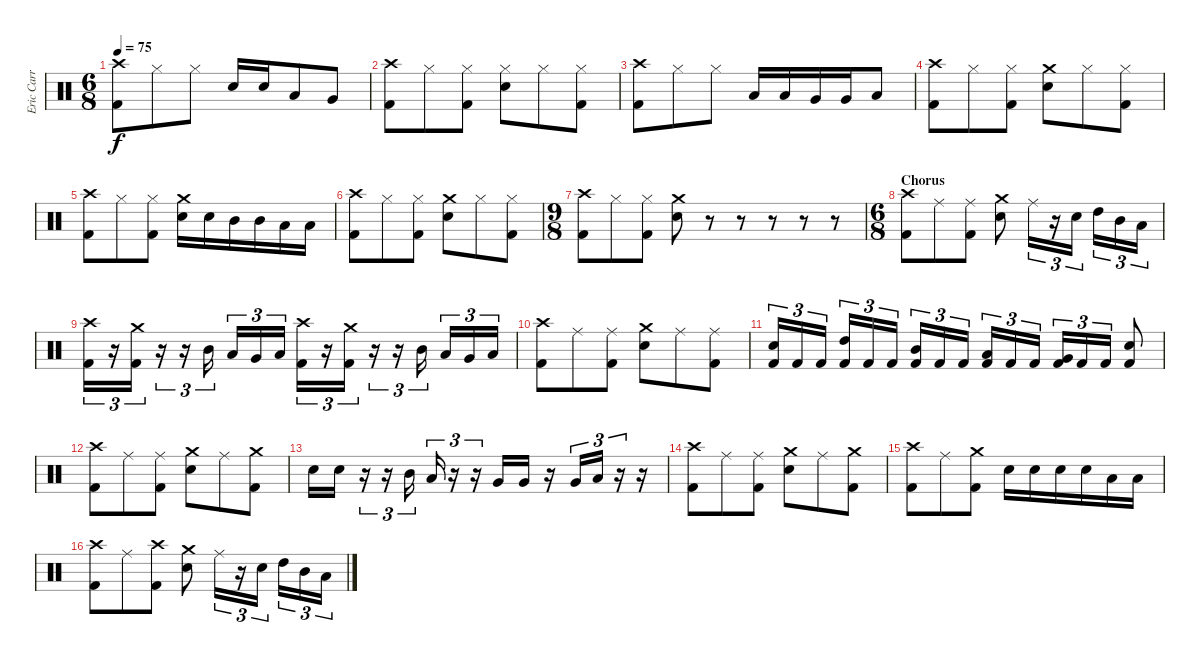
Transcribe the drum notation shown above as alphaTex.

\track ("Eric Carr" "Eric Carr") {instrument percussion}
\staff {score}
\articulation defaults
\ts (6 8)
\tempo 75
\clef neutral
\ks c
("Crash high (hit)" "Kick (hit) 2").8{dy f} "Hi-Hat (closed)".8 "Hi-Hat (closed)".8 "Electric Snare (hit)".16 "Electric Snare (hit)".16 "Low Tom (hit)".8 "Very Low Tom (hit)".8 |
("Crash high (hit)" "Kick (hit) 2").8 "Hi-Hat (closed)".8 ("Hi-Hat (closed)" "Kick (hit) 2").8 ("Hi-Hat (closed)" "Electric Snare (hit)").8 "Hi-Hat (closed)".8 ("Hi-Hat (closed)" "Kick (hit) 2").8 |
("Crash high (hit)" "Kick (hit) 2").8 "Hi-Hat (closed)".8 "Hi-Hat (closed)".8 "Low Tom (hit)".16 "Low Tom (hit)".16 "Very Low Tom (hit)".16 "Very Low Tom (hit)".16 "Low Floor Tom (hit)".8 |
("Crash high (hit)" "Kick (hit) 2").8 "Hi-Hat (closed)".8 ("Hi-Hat (closed)" "Kick (hit) 2").8 ("Crash medium (hit)" "Electric Snare (hit)").8 "Hi-Hat (closed)".8 ("Hi-Hat (closed)" "Kick (hit) 2").8 |
("Crash high (hit)" "Kick (hit) 2").8 "Hi-Hat (closed)".8 ("Hi-Hat (closed)" "Kick (hit) 2").8 ("Crash medium (hit)" "Electric Snare (hit)").16 "Electric Snare (hit)".16 "Mid Tom (hit)".16 "Mid Tom (hit)".16 "Low Tom (hit)".16 "Low Tom (hit)".16 |
("Crash high (hit)" "Kick (hit) 2").8 "Hi-Hat (closed)".8 ("Hi-Hat (closed)" "Kick (hit) 2").8 ("Crash medium (hit)" "Electric Snare (hit)").8 "Hi-Hat (closed)".8 ("Hi-Hat (closed)" "Kick (hit) 2").8 |
\ts (9 8)
("Crash high (hit)" "Kick (hit) 2").8 "Hi-Hat (closed)".8 ("Hi-Hat (closed)" "Kick (hit) 2").8 ("Crash medium (hit)" "Electric Snare (hit)").8 r.8 r.8 r.8 r.8 r.8 |
\ts (6 8)
\section ("" "Chorus")
("Crash high (hit)" "Kick (hit) 2").8 "Ride (middle)".8 ("Ride (middle)" "Kick (hit) 2").8 ("Crash medium (hit)" "Electric Snare (hit)").8 "Ride (middle)".16{tu (3 2)} r.16{tu (3 2)} "Electric Snare (hit)".16{tu (3 2)} "High Tom (hit)".16{tu (3 2)} "Mid Tom (hit)".16{tu (3 2)} "Low Tom (hit)".16{tu (3 2)} |
("Crash high (hit)" "Kick (hit) 2").16{tu (3 2)} r.16{tu (3 2)} ("Crash medium (hit)" "Kick (hit) 2").16{tu (3 2)} r.16{tu (3 2)} r.16{tu (3 2)} "Mid Tom (hit)".16{tu (3 2)} "Low Tom (hit)".16{tu (3 2)} "Very Low Tom (hit)".16{tu (3 2)} "Low Floor Tom (hit)".16{tu (3 2)} ("Crash high (hit)" "Kick (hit) 2").16{tu (3 2)} r.16{tu (3 2)} ("Crash medium (hit)" "Kick (hit) 2").16{tu (3 2)} r.16{tu (3 2)} r.16{tu (3 2)} "Mid Tom (hit)".16{tu (3 2)} "Low Tom (hit)".16{tu (3 2)} "Very Low Tom (hit)".16{tu (3 2)} "Low Floor Tom (hit)".16{tu (3 2)} |
("Crash high (hit)" "Kick (hit) 2").8 "Ride (middle)".8 ("Ride (middle)" "Kick (hit) 2").8 ("Crash medium (hit)" "Electric Snare (hit)").8 "Ride (middle)".8 ("Ride (middle)" "Kick (hit) 2").8 |
("Electric Snare (hit)" "Kick (hit) 2").16{tu (3 2)} "Kick (hit) 2".16{tu (3 2)} "Kick (hit) 2".16{tu (3 2)} ("High Tom (hit)" "Kick (hit) 2").16{tu (3 2)} "Kick (hit) 2".16{tu (3 2)} "Kick (hit) 2".16{tu (3 2)} ("Mid Tom (hit)" "Kick (hit) 2").16{tu (3 2)} "Kick (hit) 2".16{tu (3 2)} "Kick (hit) 2".16{tu (3 2)} ("Low Tom (hit)" "Kick (hit) 2").16{tu (3 2)} "Kick (hit) 2".16{tu (3 2)} "Kick (hit) 2".16{tu (3 2)} ("Very Low Tom (hit)" "Kick (hit) 2").16{tu (3 2)} "Kick (hit) 2".16{tu (3 2)} "Kick (hit) 2".16{tu (3 2)} ("Electric Snare (hit)" "Kick (hit) 2").8 |
("Crash high (hit)" "Kick (hit) 2").8 "Ride (middle)".8 ("Ride (middle)" "Kick (hit) 2").8 ("Crash medium (hit)" "Electric Snare (hit)").8 "Ride (middle)".8 ("Crash medium (hit)" "Kick (hit) 2").8 |
"Electric Snare (hit)".16 "Electric Snare (hit)".16 r.16{tu (3 2)} r.16{tu (3 2)} "Mid Tom (hit)".16{tu (3 2)} "Low Tom (hit)".16{tu (3 2)} r.16{tu (3 2)} r.16{tu (3 2)} "Very Low Tom (hit)".16 "Very Low Tom (hit)".16 r.16 "Very Low Tom (hit)".16{tu (3 2)} "Low Floor Tom (hit)".16{tu (3 2)} r.16{tu (3 2)} r.16 |
("Crash high (hit)" "Kick (hit) 2").8 "Ride (middle)".8 ("Ride (middle)" "Kick (hit) 2").8 ("Crash medium (hit)" "Electric Snare (hit)").8 "Ride (middle)".8 ("Crash medium (hit)" "Kick (hit) 2").8 |
("Crash high (hit)" "Kick (hit) 2").8 "Ride (middle)".8 ("Crash medium (hit)" "Kick (hit) 2").8 "Electric Snare (hit)".16 "Electric Snare (hit)".16 "Electric Snare (hit)".16 "Electric Snare (hit)".16 "Low Floor Tom (hit)".16 "Low Floor Tom (hit)".16 |
("Crash high (hit)" "Kick (hit) 2").8 "Ride (middle)".8 ("Crash high (hit)" "Kick (hit) 2").8 ("Crash medium (hit)" "Electric Snare (hit)").8 "Ride (middle)".16{tu (3 2)} r.16{tu (3 2)} "Electric Snare (hit)".16{tu (3 2)} "High Tom (hit)".16{tu (3 2)} "Mid Tom (hit)".16{tu (3 2)} "Low Tom (hit)".16{tu (3 2)}
